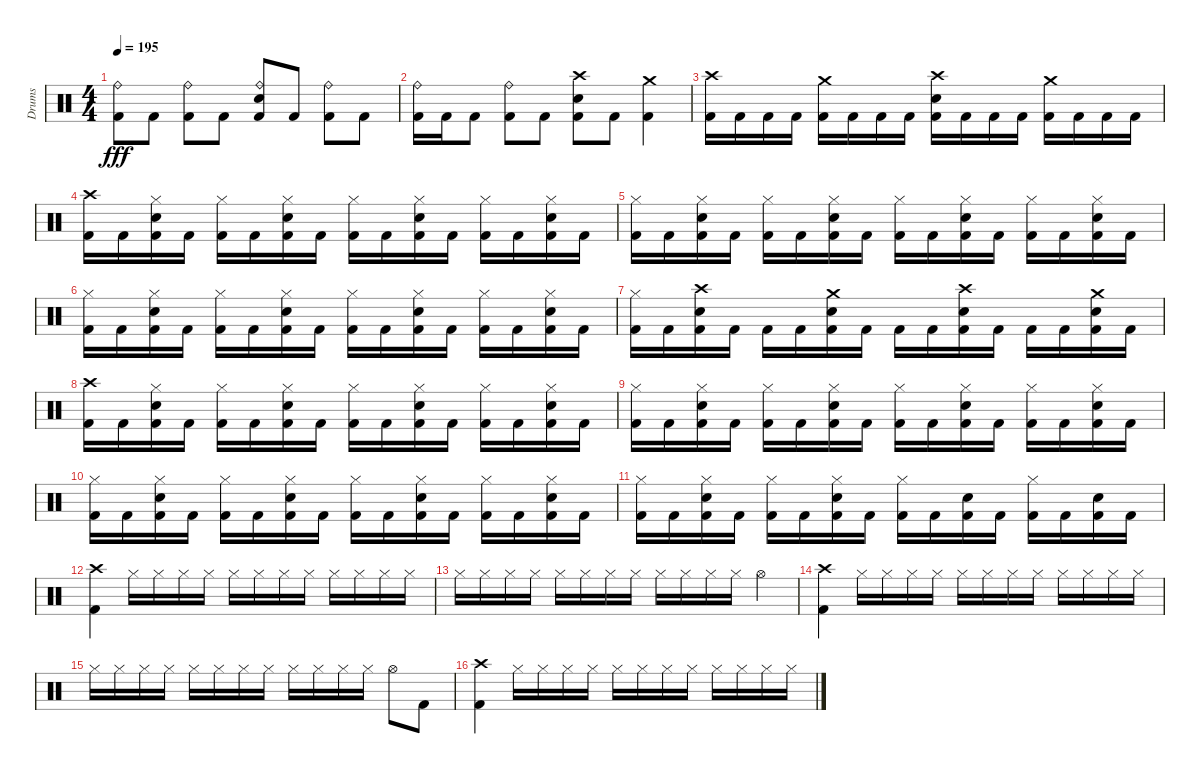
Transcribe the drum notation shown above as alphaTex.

\track ("Drums" "Drums") {instrument percussion}
\staff {score}
\articulation defaults
\ts (4 4)
\tempo 195
\clef neutral
\ks c
("Kick (hit) 2" "Ride (bell)").8{dy fff} "Kick (hit) 2".8 ("Kick (hit) 2" "Ride (bell)").8 "Kick (hit) 2".8 ("Metronome (bell)" "Kick (hit) 2" "Ride (bell)").8 "Kick (hit) 2".8 ("Kick (hit) 2" "Ride (bell)").8 "Kick (hit) 2".8 |
("Kick (hit) 2" "Ride (bell)").16 "Kick (hit) 2".16 "Kick (hit) 2".8 ("Kick (hit) 2" "Ride (bell)").8 "Kick (hit) 2".8 ("Metronome (bell)" "Kick (hit) 2" "Crash high (hit)").8 "Kick (hit) 2".8 ("Kick (hit) 2" "Crash medium (hit)").4 |
("Kick (hit) 2" "Crash high (hit)").16 "Kick (hit) 2".16 "Kick (hit) 2".16 "Kick (hit) 2".16 ("Kick (hit) 2" "Crash medium (hit)").16 "Kick (hit) 2".16 "Kick (hit) 2".16 "Kick (hit) 2".16 ("Metronome (bell)" "Kick (hit) 2" "Crash high (hit)").16 "Kick (hit) 2".16 "Kick (hit) 2".16 "Kick (hit) 2".16 ("Kick (hit) 2" "Crash medium (hit)").16 "Kick (hit) 2".16 "Kick (hit) 2".16 "Kick (hit) 2".16 |
("Kick (hit) 2" "Crash high (hit)").16 "Kick (hit) 2".16 ("Metronome (bell)" "Kick (hit) 2" "Hi-Hat (closed)").16 "Kick (hit) 2".16 ("Kick (hit) 2" "Hi-Hat (closed)").16 "Kick (hit) 2".16 ("Metronome (bell)" "Kick (hit) 2" "Hi-Hat (closed)").16 "Kick (hit) 2".16 ("Kick (hit) 2" "Hi-Hat (closed)").16 "Kick (hit) 2".16 ("Metronome (bell)" "Kick (hit) 2" "Hi-Hat (closed)").16 "Kick (hit) 2".16 ("Kick (hit) 2" "Hi-Hat (closed)").16 "Kick (hit) 2".16 ("Metronome (bell)" "Kick (hit) 2" "Hi-Hat (closed)").16 "Kick (hit) 2".16 |
("Kick (hit) 2" "Hi-Hat (closed)").16 "Kick (hit) 2".16 ("Metronome (bell)" "Kick (hit) 2" "Hi-Hat (closed)").16 "Kick (hit) 2".16 ("Kick (hit) 2" "Hi-Hat (closed)").16 "Kick (hit) 2".16 ("Metronome (bell)" "Kick (hit) 2" "Hi-Hat (closed)").16 "Kick (hit) 2".16 ("Kick (hit) 2" "Hi-Hat (closed)").16 "Kick (hit) 2".16 ("Metronome (bell)" "Kick (hit) 2" "Hi-Hat (closed)").16 "Kick (hit) 2".16 ("Kick (hit) 2" "Hi-Hat (closed)").16 "Kick (hit) 2".16 ("Metronome (bell)" "Kick (hit) 2" "Hi-Hat (closed)").16 "Kick (hit) 2".16 |
("Kick (hit) 2" "Hi-Hat (closed)").16 "Kick (hit) 2".16 ("Metronome (bell)" "Kick (hit) 2" "Hi-Hat (closed)").16 "Kick (hit) 2".16 ("Kick (hit) 2" "Hi-Hat (closed)").16 "Kick (hit) 2".16 ("Metronome (bell)" "Kick (hit) 2" "Hi-Hat (closed)").16 "Kick (hit) 2".16 ("Kick (hit) 2" "Hi-Hat (closed)").16 "Kick (hit) 2".16 ("Metronome (bell)" "Kick (hit) 2" "Hi-Hat (closed)").16 "Kick (hit) 2".16 ("Kick (hit) 2" "Hi-Hat (closed)").16 "Kick (hit) 2".16 ("Metronome (bell)" "Kick (hit) 2" "Hi-Hat (closed)").16 "Kick (hit) 2".16 |
("Kick (hit) 2" "Hi-Hat (closed)").16 "Kick (hit) 2".16 ("Metronome (bell)" "Kick (hit) 2" "Crash high (hit)").16 "Kick (hit) 2".16 "Kick (hit) 2".16 "Kick (hit) 2".16 ("Metronome (bell)" "Kick (hit) 2" "Crash medium (hit)").16 "Kick (hit) 2".16 "Kick (hit) 2".16 "Kick (hit) 2".16 ("Metronome (bell)" "Kick (hit) 2" "Crash high (hit)").16 "Kick (hit) 2".16 "Kick (hit) 2".16 "Kick (hit) 2".16 ("Metronome (bell)" "Kick (hit) 2" "Crash medium (hit)").16 "Kick (hit) 2".16 |
("Kick (hit) 2" "Crash high (hit)").16 "Kick (hit) 2".16 ("Metronome (bell)" "Kick (hit) 2" "Hi-Hat (closed)").16 "Kick (hit) 2".16 ("Kick (hit) 2" "Hi-Hat (closed)").16 "Kick (hit) 2".16 ("Metronome (bell)" "Kick (hit) 2" "Hi-Hat (closed)").16 "Kick (hit) 2".16 ("Kick (hit) 2" "Hi-Hat (closed)").16 "Kick (hit) 2".16 ("Metronome (bell)" "Kick (hit) 2" "Hi-Hat (closed)").16 "Kick (hit) 2".16 ("Kick (hit) 2" "Hi-Hat (closed)").16 "Kick (hit) 2".16 ("Metronome (bell)" "Kick (hit) 2" "Hi-Hat (closed)").16 "Kick (hit) 2".16 |
("Kick (hit) 2" "Hi-Hat (closed)").16 "Kick (hit) 2".16 ("Metronome (bell)" "Kick (hit) 2" "Hi-Hat (closed)").16 "Kick (hit) 2".16 ("Kick (hit) 2" "Hi-Hat (closed)").16 "Kick (hit) 2".16 ("Metronome (bell)" "Kick (hit) 2" "Hi-Hat (closed)").16 "Kick (hit) 2".16 ("Kick (hit) 2" "Hi-Hat (closed)").16 "Kick (hit) 2".16 ("Metronome (bell)" "Kick (hit) 2" "Hi-Hat (closed)").16 "Kick (hit) 2".16 ("Kick (hit) 2" "Hi-Hat (closed)").16 "Kick (hit) 2".16 ("Metronome (bell)" "Kick (hit) 2" "Hi-Hat (closed)").16 "Kick (hit) 2".16 |
("Kick (hit) 2" "Hi-Hat (closed)").16 "Kick (hit) 2".16 ("Metronome (bell)" "Kick (hit) 2" "Hi-Hat (closed)").16 "Kick (hit) 2".16 ("Kick (hit) 2" "Hi-Hat (closed)").16 "Kick (hit) 2".16 ("Metronome (bell)" "Kick (hit) 2" "Hi-Hat (closed)").16 "Kick (hit) 2".16 ("Kick (hit) 2" "Hi-Hat (closed)").16 "Kick (hit) 2".16 ("Metronome (bell)" "Kick (hit) 2" "Hi-Hat (closed)").16 "Kick (hit) 2".16 ("Kick (hit) 2" "Hi-Hat (closed)").16 "Kick (hit) 2".16 ("Metronome (bell)" "Kick (hit) 2" "Hi-Hat (closed)").16 "Kick (hit) 2".16 |
("Kick (hit) 2" "Hi-Hat (closed)").16 "Kick (hit) 2".16 ("Metronome (bell)" "Kick (hit) 2" "Hi-Hat (closed)").16 "Kick (hit) 2".16 ("Kick (hit) 2" "Hi-Hat (closed)").16 "Kick (hit) 2".16 ("Metronome (bell)" "Kick (hit) 2" "Hi-Hat (closed)").16 "Kick (hit) 2".16 ("Kick (hit) 2" "Hi-Hat (closed)").16 "Kick (hit) 2".16 ("Metronome (bell)" "Kick (hit) 2").16 "Kick (hit) 2".16 ("Kick (hit) 2" "Hi-Hat (closed)").16 "Kick (hit) 2".16 ("Metronome (bell)" "Kick (hit) 2").16 "Kick (hit) 2".16 |
("Kick (hit) 2" "Crash high (hit)").4 "Hi-Hat (closed)".16 "Hi-Hat (closed)".16 "Hi-Hat (closed)".16 "Hi-Hat (closed)".16 "Hi-Hat (closed)".16 "Hi-Hat (closed)".16 "Hi-Hat (closed)".16 "Hi-Hat (closed)".16 "Hi-Hat (closed)".16 "Hi-Hat (closed)".16 "Hi-Hat (closed)".16 "Hi-Hat (closed)".16 |
"Hi-Hat (closed)".16 "Hi-Hat (closed)".16 "Hi-Hat (closed)".16 "Hi-Hat (closed)".16 "Hi-Hat (closed)".16 "Hi-Hat (closed)".16 "Hi-Hat (closed)".16 "Hi-Hat (closed)".16 "Hi-Hat (closed)".16 "Hi-Hat (closed)".16 "Hi-Hat (closed)".16 "Hi-Hat (closed)".16 "Hi-Hat (open)".4 |
("Kick (hit) 2" "Crash high (hit)").4 "Hi-Hat (closed)".16 "Hi-Hat (closed)".16 "Hi-Hat (closed)".16 "Hi-Hat (closed)".16 "Hi-Hat (closed)".16 "Hi-Hat (closed)".16 "Hi-Hat (closed)".16 "Hi-Hat (closed)".16 "Hi-Hat (closed)".16 "Hi-Hat (closed)".16 "Hi-Hat (closed)".16 "Hi-Hat (closed)".16 |
"Hi-Hat (closed)".16 "Hi-Hat (closed)".16 "Hi-Hat (closed)".16 "Hi-Hat (closed)".16 "Hi-Hat (closed)".16 "Hi-Hat (closed)".16 "Hi-Hat (closed)".16 "Hi-Hat (closed)".16 "Hi-Hat (closed)".16 "Hi-Hat (closed)".16 "Hi-Hat (closed)".16 "Hi-Hat (closed)".16 "Hi-Hat (open)".8 "Kick (hit) 2".8 |
("Kick (hit) 2" "Crash high (hit)").4 "Hi-Hat (closed)".16 "Hi-Hat (closed)".16 "Hi-Hat (closed)".16 "Hi-Hat (closed)".16 "Hi-Hat (closed)".16 "Hi-Hat (closed)".16 "Hi-Hat (closed)".16 "Hi-Hat (closed)".16 "Hi-Hat (closed)".16 "Hi-Hat (closed)".16 "Hi-Hat (closed)".16 "Hi-Hat (closed)".16
